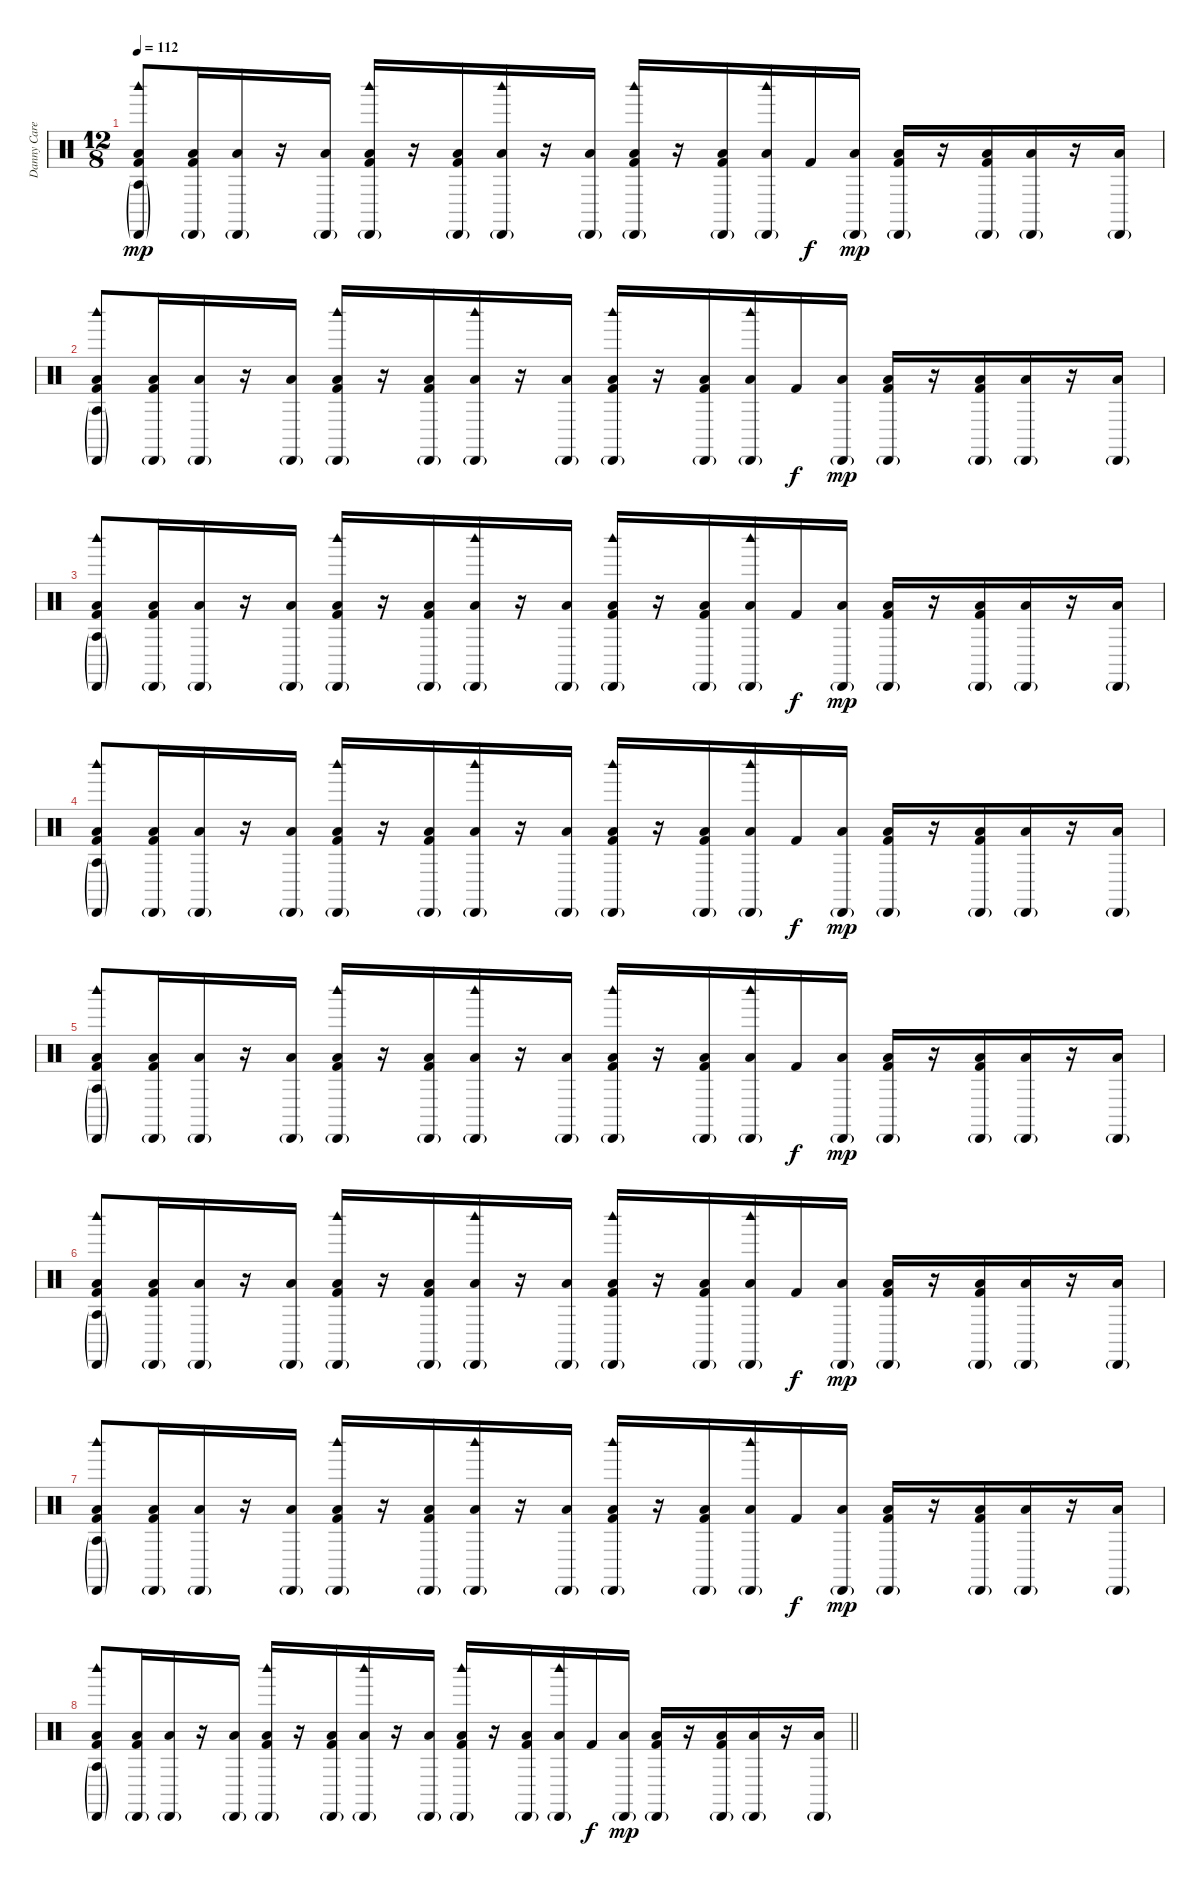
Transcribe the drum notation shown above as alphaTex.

\track ("Danny Carey" "Danny Care") {instrument percussion}
\staff {score}
\articulation defaults
\ts (12 8)
\tempo 112
\clef neutral
\ks c
("Low Floor Tom (hit)" "Agogo tow (hit)"{g} "Cabasa (hit)"{g} "Woodblock high (hit)" "Kick (hit) 2").8{dy mp} ("Low Floor Tom (hit)" "Cabasa (hit)"{g} "Kick (hit) 2").16 ("Low Floor Tom (hit)" "Cabasa (hit)"{g}).16 r.16 ("Low Floor Tom (hit)" "Cabasa (hit)"{g}).16 ("Low Floor Tom (hit)" "Cabasa (hit)"{g} "Woodblock high (hit)" "Kick (hit) 2").16 r.16 ("Low Floor Tom (hit)" "Cabasa (hit)"{g} "Kick (hit) 2").16 ("Low Floor Tom (hit)" "Cabasa (hit)"{g} "Woodblock high (hit)").16 r.16 ("Low Floor Tom (hit)" "Cabasa (hit)"{g}).16 ("Low Floor Tom (hit)" "Cabasa (hit)"{g} "Woodblock high (hit)" "Kick (hit) 2").16 r.16 ("Low Floor Tom (hit)" "Cabasa (hit)"{g} "Kick (hit) 2").16 ("Low Floor Tom (hit)" "Cabasa (hit)"{g} "Woodblock high (hit)").16 "Kick (hit) 2".16{dy f} ("Low Floor Tom (hit)" "Cabasa (hit)"{g}).16{dy mp} ("Low Floor Tom (hit)" "Cabasa (hit)"{g} "Kick (hit) 2").16 r.16 ("Low Floor Tom (hit)" "Cabasa (hit)"{g} "Kick (hit) 2").16 ("Low Floor Tom (hit)" "Cabasa (hit)"{g}).16 r.16 ("Low Floor Tom (hit)" "Cabasa (hit)"{g}).16 |
("Low Floor Tom (hit)" "Agogo tow (hit)"{g} "Cabasa (hit)"{g} "Woodblock high (hit)" "Kick (hit) 2").8 ("Low Floor Tom (hit)" "Cabasa (hit)"{g} "Kick (hit) 2").16 ("Low Floor Tom (hit)" "Cabasa (hit)"{g}).16 r.16 ("Low Floor Tom (hit)" "Cabasa (hit)"{g}).16 ("Low Floor Tom (hit)" "Cabasa (hit)"{g} "Woodblock high (hit)" "Kick (hit) 2").16 r.16 ("Low Floor Tom (hit)" "Cabasa (hit)"{g} "Kick (hit) 2").16 ("Low Floor Tom (hit)" "Cabasa (hit)"{g} "Woodblock high (hit)").16 r.16 ("Low Floor Tom (hit)" "Cabasa (hit)"{g}).16 ("Low Floor Tom (hit)" "Cabasa (hit)"{g} "Woodblock high (hit)" "Kick (hit) 2").16 r.16 ("Low Floor Tom (hit)" "Cabasa (hit)"{g} "Kick (hit) 2").16 ("Low Floor Tom (hit)" "Cabasa (hit)"{g} "Woodblock high (hit)").16 "Kick (hit) 2".16{dy f} ("Low Floor Tom (hit)" "Cabasa (hit)"{g}).16{dy mp} ("Low Floor Tom (hit)" "Cabasa (hit)"{g} "Kick (hit) 2").16 r.16 ("Low Floor Tom (hit)" "Cabasa (hit)"{g} "Kick (hit) 2").16 ("Low Floor Tom (hit)" "Cabasa (hit)"{g}).16 r.16 ("Low Floor Tom (hit)" "Cabasa (hit)"{g}).16 |
("Low Floor Tom (hit)" "Agogo tow (hit)"{g} "Cabasa (hit)"{g} "Woodblock high (hit)" "Kick (hit) 2").8 ("Low Floor Tom (hit)" "Cabasa (hit)"{g} "Kick (hit) 2").16 ("Low Floor Tom (hit)" "Cabasa (hit)"{g}).16 r.16 ("Low Floor Tom (hit)" "Cabasa (hit)"{g}).16 ("Low Floor Tom (hit)" "Cabasa (hit)"{g} "Woodblock high (hit)" "Kick (hit) 2").16 r.16 ("Low Floor Tom (hit)" "Cabasa (hit)"{g} "Kick (hit) 2").16 ("Low Floor Tom (hit)" "Cabasa (hit)"{g} "Woodblock high (hit)").16 r.16 ("Low Floor Tom (hit)" "Cabasa (hit)"{g}).16 ("Low Floor Tom (hit)" "Cabasa (hit)"{g} "Woodblock high (hit)" "Kick (hit) 2").16 r.16 ("Low Floor Tom (hit)" "Cabasa (hit)"{g} "Kick (hit) 2").16 ("Low Floor Tom (hit)" "Cabasa (hit)"{g} "Woodblock high (hit)").16 "Kick (hit) 2".16{dy f} ("Low Floor Tom (hit)" "Cabasa (hit)"{g}).16{dy mp} ("Low Floor Tom (hit)" "Cabasa (hit)"{g} "Kick (hit) 2").16 r.16 ("Low Floor Tom (hit)" "Cabasa (hit)"{g} "Kick (hit) 2").16 ("Low Floor Tom (hit)" "Cabasa (hit)"{g}).16 r.16 ("Low Floor Tom (hit)" "Cabasa (hit)"{g}).16 |
("Low Floor Tom (hit)" "Agogo tow (hit)"{g} "Cabasa (hit)"{g} "Woodblock high (hit)" "Kick (hit) 2").8 ("Low Floor Tom (hit)" "Cabasa (hit)"{g} "Kick (hit) 2").16 ("Low Floor Tom (hit)" "Cabasa (hit)"{g}).16 r.16 ("Low Floor Tom (hit)" "Cabasa (hit)"{g}).16 ("Low Floor Tom (hit)" "Cabasa (hit)"{g} "Woodblock high (hit)" "Kick (hit) 2").16 r.16 ("Low Floor Tom (hit)" "Cabasa (hit)"{g} "Kick (hit) 2").16 ("Low Floor Tom (hit)" "Cabasa (hit)"{g} "Woodblock high (hit)").16 r.16 ("Low Floor Tom (hit)" "Cabasa (hit)"{g}).16 ("Low Floor Tom (hit)" "Cabasa (hit)"{g} "Woodblock high (hit)" "Kick (hit) 2").16 r.16 ("Low Floor Tom (hit)" "Cabasa (hit)"{g} "Kick (hit) 2").16 ("Low Floor Tom (hit)" "Cabasa (hit)"{g} "Woodblock high (hit)").16 "Kick (hit) 2".16{dy f} ("Low Floor Tom (hit)" "Cabasa (hit)"{g}).16{dy mp} ("Low Floor Tom (hit)" "Cabasa (hit)"{g} "Kick (hit) 2").16 r.16 ("Low Floor Tom (hit)" "Cabasa (hit)"{g} "Kick (hit) 2").16 ("Low Floor Tom (hit)" "Cabasa (hit)"{g}).16 r.16 ("Low Floor Tom (hit)" "Cabasa (hit)"{g}).16 |
("Low Floor Tom (hit)" "Agogo tow (hit)"{g} "Cabasa (hit)"{g} "Woodblock high (hit)" "Kick (hit) 2").8 ("Low Floor Tom (hit)" "Cabasa (hit)"{g} "Kick (hit) 2").16 ("Low Floor Tom (hit)" "Cabasa (hit)"{g}).16 r.16 ("Low Floor Tom (hit)" "Cabasa (hit)"{g}).16 ("Low Floor Tom (hit)" "Cabasa (hit)"{g} "Woodblock high (hit)" "Kick (hit) 2").16 r.16 ("Low Floor Tom (hit)" "Cabasa (hit)"{g} "Kick (hit) 2").16 ("Low Floor Tom (hit)" "Cabasa (hit)"{g} "Woodblock high (hit)").16 r.16 ("Low Floor Tom (hit)" "Cabasa (hit)"{g}).16 ("Low Floor Tom (hit)" "Cabasa (hit)"{g} "Woodblock high (hit)" "Kick (hit) 2").16 r.16 ("Low Floor Tom (hit)" "Cabasa (hit)"{g} "Kick (hit) 2").16 ("Low Floor Tom (hit)" "Cabasa (hit)"{g} "Woodblock high (hit)").16 "Kick (hit) 2".16{dy f} ("Low Floor Tom (hit)" "Cabasa (hit)"{g}).16{dy mp} ("Low Floor Tom (hit)" "Cabasa (hit)"{g} "Kick (hit) 2").16 r.16 ("Low Floor Tom (hit)" "Cabasa (hit)"{g} "Kick (hit) 2").16 ("Low Floor Tom (hit)" "Cabasa (hit)"{g}).16 r.16 ("Low Floor Tom (hit)" "Cabasa (hit)"{g}).16 |
("Low Floor Tom (hit)" "Agogo tow (hit)"{g} "Cabasa (hit)"{g} "Woodblock high (hit)" "Kick (hit) 2").8 ("Low Floor Tom (hit)" "Cabasa (hit)"{g} "Kick (hit) 2").16 ("Low Floor Tom (hit)" "Cabasa (hit)"{g}).16 r.16 ("Low Floor Tom (hit)" "Cabasa (hit)"{g}).16 ("Low Floor Tom (hit)" "Cabasa (hit)"{g} "Woodblock high (hit)" "Kick (hit) 2").16 r.16 ("Low Floor Tom (hit)" "Cabasa (hit)"{g} "Kick (hit) 2").16 ("Low Floor Tom (hit)" "Cabasa (hit)"{g} "Woodblock high (hit)").16 r.16 ("Low Floor Tom (hit)" "Cabasa (hit)"{g}).16 ("Low Floor Tom (hit)" "Cabasa (hit)"{g} "Woodblock high (hit)" "Kick (hit) 2").16 r.16 ("Low Floor Tom (hit)" "Cabasa (hit)"{g} "Kick (hit) 2").16 ("Low Floor Tom (hit)" "Cabasa (hit)"{g} "Woodblock high (hit)").16 "Kick (hit) 2".16{dy f} ("Low Floor Tom (hit)" "Cabasa (hit)"{g}).16{dy mp} ("Low Floor Tom (hit)" "Cabasa (hit)"{g} "Kick (hit) 2").16 r.16 ("Low Floor Tom (hit)" "Cabasa (hit)"{g} "Kick (hit) 2").16 ("Low Floor Tom (hit)" "Cabasa (hit)"{g}).16 r.16 ("Low Floor Tom (hit)" "Cabasa (hit)"{g}).16 |
("Low Floor Tom (hit)" "Agogo tow (hit)"{g} "Cabasa (hit)"{g} "Woodblock high (hit)" "Kick (hit) 2").8 ("Low Floor Tom (hit)" "Cabasa (hit)"{g} "Kick (hit) 2").16 ("Low Floor Tom (hit)" "Cabasa (hit)"{g}).16 r.16 ("Low Floor Tom (hit)" "Cabasa (hit)"{g}).16 ("Low Floor Tom (hit)" "Cabasa (hit)"{g} "Woodblock high (hit)" "Kick (hit) 2").16 r.16 ("Low Floor Tom (hit)" "Cabasa (hit)"{g} "Kick (hit) 2").16 ("Low Floor Tom (hit)" "Cabasa (hit)"{g} "Woodblock high (hit)").16 r.16 ("Low Floor Tom (hit)" "Cabasa (hit)"{g}).16 ("Low Floor Tom (hit)" "Cabasa (hit)"{g} "Woodblock high (hit)" "Kick (hit) 2").16 r.16 ("Low Floor Tom (hit)" "Cabasa (hit)"{g} "Kick (hit) 2").16 ("Low Floor Tom (hit)" "Cabasa (hit)"{g} "Woodblock high (hit)").16 "Kick (hit) 2".16{dy f} ("Low Floor Tom (hit)" "Cabasa (hit)"{g}).16{dy mp} ("Low Floor Tom (hit)" "Cabasa (hit)"{g} "Kick (hit) 2").16 r.16 ("Low Floor Tom (hit)" "Cabasa (hit)"{g} "Kick (hit) 2").16 ("Low Floor Tom (hit)" "Cabasa (hit)"{g}).16 r.16 ("Low Floor Tom (hit)" "Cabasa (hit)"{g}).16 |
\barLineRight lightlight
("Low Floor Tom (hit)" "Agogo tow (hit)"{g} "Cabasa (hit)"{g} "Woodblock high (hit)" "Kick (hit) 2").8 ("Low Floor Tom (hit)" "Cabasa (hit)"{g} "Kick (hit) 2").16 ("Low Floor Tom (hit)" "Cabasa (hit)"{g}).16 r.16 ("Low Floor Tom (hit)" "Cabasa (hit)"{g}).16 ("Low Floor Tom (hit)" "Cabasa (hit)"{g} "Woodblock high (hit)" "Kick (hit) 2").16 r.16 ("Low Floor Tom (hit)" "Cabasa (hit)"{g} "Kick (hit) 2").16 ("Low Floor Tom (hit)" "Cabasa (hit)"{g} "Woodblock high (hit)").16 r.16 ("Low Floor Tom (hit)" "Cabasa (hit)"{g}).16 ("Low Floor Tom (hit)" "Cabasa (hit)"{g} "Woodblock high (hit)" "Kick (hit) 2").16 r.16 ("Low Floor Tom (hit)" "Cabasa (hit)"{g} "Kick (hit) 2").16 ("Low Floor Tom (hit)" "Cabasa (hit)"{g} "Woodblock high (hit)").16 "Kick (hit) 2".16{dy f} ("Low Floor Tom (hit)" "Cabasa (hit)"{g}).16{dy mp} ("Low Floor Tom (hit)" "Cabasa (hit)"{g} "Kick (hit) 2").16 r.16 ("Low Floor Tom (hit)" "Cabasa (hit)"{g} "Kick (hit) 2").16 ("Low Floor Tom (hit)" "Cabasa (hit)"{g}).16 r.16 ("Low Floor Tom (hit)" "Cabasa (hit)"{g}).16
